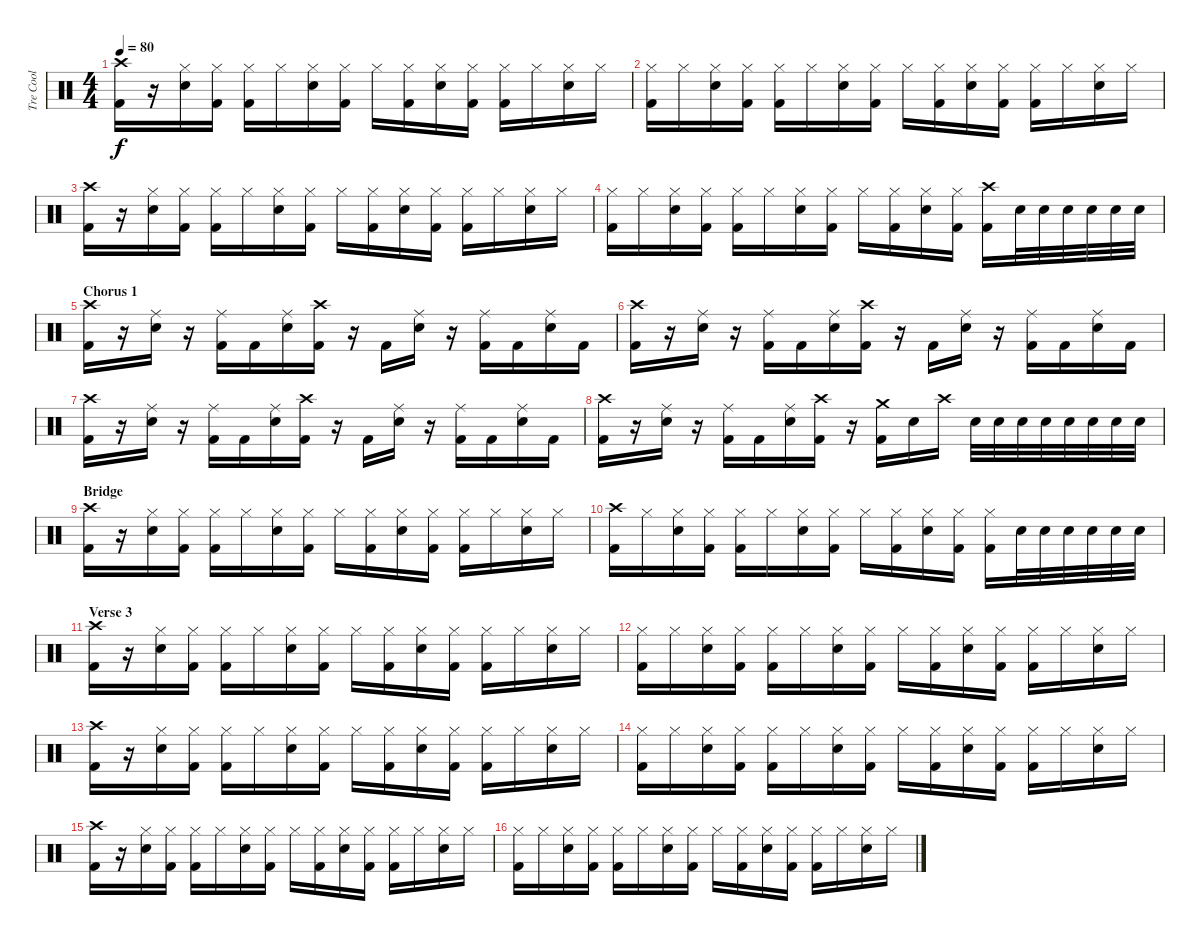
\track ("Tre Cool" "Tre Cool") {instrument percussion}
\staff {score}
\articulation defaults
\ts (4 4)
\tempo 80
\clef neutral
\ks c
("Crash high (hit)" "Kick (hit) 2").16{dy f} r.16 ("Hi-Hat (closed)" "Electric Snare (hit)").16 ("Hi-Hat (closed)" "Kick (hit) 2").16 ("Hi-Hat (closed)" "Kick (hit) 2").16 "Hi-Hat (closed)".16 ("Hi-Hat (closed)" "Electric Snare (hit)").16 ("Hi-Hat (closed)" "Kick (hit) 2").16 "Hi-Hat (closed)".16 ("Hi-Hat (closed)" "Kick (hit) 2").16 ("Hi-Hat (closed)" "Electric Snare (hit)").16 ("Hi-Hat (closed)" "Kick (hit) 2").16 ("Hi-Hat (closed)" "Kick (hit) 2").16 "Hi-Hat (closed)".16 ("Hi-Hat (closed)" "Electric Snare (hit)").16 "Hi-Hat (closed)".16 |
("Hi-Hat (closed)" "Kick (hit) 2").16 "Hi-Hat (closed)".16 ("Hi-Hat (closed)" "Electric Snare (hit)").16 ("Hi-Hat (closed)" "Kick (hit) 2").16 ("Hi-Hat (closed)" "Kick (hit) 2").16 "Hi-Hat (closed)".16 ("Hi-Hat (closed)" "Electric Snare (hit)").16 ("Hi-Hat (closed)" "Kick (hit) 2").16 "Hi-Hat (closed)".16 ("Hi-Hat (closed)" "Kick (hit) 2").16 ("Hi-Hat (closed)" "Electric Snare (hit)").16 ("Hi-Hat (closed)" "Kick (hit) 2").16 ("Hi-Hat (closed)" "Kick (hit) 2").16 "Hi-Hat (closed)".16 ("Hi-Hat (closed)" "Electric Snare (hit)").16 "Hi-Hat (closed)".16 |
("Crash high (hit)" "Kick (hit) 2").16 r.16 ("Hi-Hat (closed)" "Electric Snare (hit)").16 ("Hi-Hat (closed)" "Kick (hit) 2").16 ("Hi-Hat (closed)" "Kick (hit) 2").16 "Hi-Hat (closed)".16 ("Hi-Hat (closed)" "Electric Snare (hit)").16 ("Hi-Hat (closed)" "Kick (hit) 2").16 "Hi-Hat (closed)".16 ("Hi-Hat (closed)" "Kick (hit) 2").16 ("Hi-Hat (closed)" "Electric Snare (hit)").16 ("Hi-Hat (closed)" "Kick (hit) 2").16 ("Hi-Hat (closed)" "Kick (hit) 2").16 "Hi-Hat (closed)".16 ("Hi-Hat (closed)" "Electric Snare (hit)").16 "Hi-Hat (closed)".16 |
("Hi-Hat (closed)" "Kick (hit) 2").16 "Hi-Hat (closed)".16 ("Hi-Hat (closed)" "Electric Snare (hit)").16 ("Hi-Hat (closed)" "Kick (hit) 2").16 ("Hi-Hat (closed)" "Kick (hit) 2").16 "Hi-Hat (closed)".16 ("Hi-Hat (closed)" "Electric Snare (hit)").16 ("Hi-Hat (closed)" "Kick (hit) 2").16 "Hi-Hat (closed)".16 ("Hi-Hat (closed)" "Kick (hit) 2").16 ("Hi-Hat (closed)" "Electric Snare (hit)").16 ("Hi-Hat (closed)" "Kick (hit) 2").16 ("Crash high (hit)" "Kick (hit) 2").16 "Electric Snare (hit)".32 "Electric Snare (hit)".32 "Electric Snare (hit)".32 "Electric Snare (hit)".32 "Electric Snare (hit)".32 "Electric Snare (hit)".32 |
\section ("" "Chorus 1")
("Crash high (hit)" "Kick (hit) 2").16 r.16 ("Ride (middle)" "Electric Snare (hit)").16 r.16 ("Ride (middle)" "Kick (hit) 2").16 "Kick (hit) 2".16 ("Ride (middle)" "Electric Snare (hit)").16 ("Crash high (hit)" "Kick (hit) 2").16 r.16 "Kick (hit) 2".16 ("Ride (middle)" "Electric Snare (hit)").16 r.16 ("Ride (middle)" "Kick (hit) 2").16 "Kick (hit) 2".16 ("Ride (middle)" "Electric Snare (hit)").16 "Kick (hit) 2".16 |
("Crash high (hit)" "Kick (hit) 2").16 r.16 ("Ride (middle)" "Electric Snare (hit)").16 r.16 ("Ride (middle)" "Kick (hit) 2").16 "Kick (hit) 2".16 ("Ride (middle)" "Electric Snare (hit)").16 ("Crash high (hit)" "Kick (hit) 2").16 r.16 "Kick (hit) 2".16 ("Ride (middle)" "Electric Snare (hit)").16 r.16 ("Ride (middle)" "Kick (hit) 2").16 "Kick (hit) 2".16 ("Ride (middle)" "Electric Snare (hit)").16 "Kick (hit) 2".16 |
("Crash high (hit)" "Kick (hit) 2").16 r.16 ("Ride (middle)" "Electric Snare (hit)").16 r.16 ("Ride (middle)" "Kick (hit) 2").16 "Kick (hit) 2".16 ("Ride (middle)" "Electric Snare (hit)").16 ("Crash high (hit)" "Kick (hit) 2").16 r.16 "Kick (hit) 2".16 ("Ride (middle)" "Electric Snare (hit)").16 r.16 ("Ride (middle)" "Kick (hit) 2").16 "Kick (hit) 2".16 ("Ride (middle)" "Electric Snare (hit)").16 "Kick (hit) 2".16 |
("Crash high (hit)" "Kick (hit) 2").16 r.16 ("Ride (middle)" "Electric Snare (hit)").16 r.16 ("Ride (middle)" "Kick (hit) 2").16 "Kick (hit) 2".16 ("Ride (middle)" "Electric Snare (hit)").16 ("Crash high (hit)" "Kick (hit) 2").16 r.16 ("Crash medium (hit)" "Kick (hit) 2").16 "Electric Snare (hit)".16 "Crash high (hit)".16 "Electric Snare (hit)".32 "Electric Snare (hit)".32 "Electric Snare (hit)".32 "Electric Snare (hit)".32 "Electric Snare (hit)".32 "Electric Snare (hit)".32 "Electric Snare (hit)".32 "Electric Snare (hit)".32 |
\section ("" "Bridge")
("Crash high (hit)" "Kick (hit) 2").16 r.16 ("Hi-Hat (closed)" "Electric Snare (hit)").16 ("Hi-Hat (closed)" "Kick (hit) 2").16 ("Hi-Hat (closed)" "Kick (hit) 2").16 "Hi-Hat (closed)".16 ("Hi-Hat (closed)" "Electric Snare (hit)").16 ("Hi-Hat (closed)" "Kick (hit) 2").16 "Hi-Hat (closed)".16 ("Hi-Hat (closed)" "Kick (hit) 2").16 ("Hi-Hat (closed)" "Electric Snare (hit)").16 ("Hi-Hat (closed)" "Kick (hit) 2").16 ("Hi-Hat (closed)" "Kick (hit) 2").16 "Hi-Hat (closed)".16 ("Hi-Hat (closed)" "Electric Snare (hit)").16 "Hi-Hat (closed)".16 |
("Crash high (hit)" "Kick (hit) 2").16 "Hi-Hat (closed)".16 ("Hi-Hat (closed)" "Electric Snare (hit)").16 ("Hi-Hat (closed)" "Kick (hit) 2").16 ("Hi-Hat (closed)" "Kick (hit) 2").16 "Hi-Hat (closed)".16 ("Hi-Hat (closed)" "Electric Snare (hit)").16 ("Hi-Hat (closed)" "Kick (hit) 2").16 "Hi-Hat (closed)".16 ("Hi-Hat (closed)" "Kick (hit) 2").16 ("Hi-Hat (closed)" "Electric Snare (hit)").16 ("Hi-Hat (closed)" "Kick (hit) 2").16 ("Hi-Hat (closed)" "Kick (hit) 2").16 "Electric Snare (hit)".32 "Electric Snare (hit)".32 "Electric Snare (hit)".32 "Electric Snare (hit)".32 "Electric Snare (hit)".32 "Electric Snare (hit)".32 |
\section ("" "Verse 3")
("Crash high (hit)" "Kick (hit) 2").16 r.16 ("Hi-Hat (closed)" "Electric Snare (hit)").16 ("Hi-Hat (closed)" "Kick (hit) 2").16 ("Hi-Hat (closed)" "Kick (hit) 2").16 "Hi-Hat (closed)".16 ("Hi-Hat (closed)" "Electric Snare (hit)").16 ("Hi-Hat (closed)" "Kick (hit) 2").16 "Hi-Hat (closed)".16 ("Hi-Hat (closed)" "Kick (hit) 2").16 ("Hi-Hat (closed)" "Electric Snare (hit)").16 ("Hi-Hat (closed)" "Kick (hit) 2").16 ("Hi-Hat (closed)" "Kick (hit) 2").16 "Hi-Hat (closed)".16 ("Hi-Hat (closed)" "Electric Snare (hit)").16 "Hi-Hat (closed)".16 |
("Hi-Hat (closed)" "Kick (hit) 2").16 "Hi-Hat (closed)".16 ("Hi-Hat (closed)" "Electric Snare (hit)").16 ("Hi-Hat (closed)" "Kick (hit) 2").16 ("Hi-Hat (closed)" "Kick (hit) 2").16 "Hi-Hat (closed)".16 ("Hi-Hat (closed)" "Electric Snare (hit)").16 ("Hi-Hat (closed)" "Kick (hit) 2").16 "Hi-Hat (closed)".16 ("Hi-Hat (closed)" "Kick (hit) 2").16 ("Hi-Hat (closed)" "Electric Snare (hit)").16 ("Hi-Hat (closed)" "Kick (hit) 2").16 ("Hi-Hat (closed)" "Kick (hit) 2").16 "Hi-Hat (closed)".16 ("Hi-Hat (closed)" "Electric Snare (hit)").16 "Hi-Hat (closed)".16 |
("Crash high (hit)" "Kick (hit) 2").16 r.16 ("Hi-Hat (closed)" "Electric Snare (hit)").16 ("Hi-Hat (closed)" "Kick (hit) 2").16 ("Hi-Hat (closed)" "Kick (hit) 2").16 "Hi-Hat (closed)".16 ("Hi-Hat (closed)" "Electric Snare (hit)").16 ("Hi-Hat (closed)" "Kick (hit) 2").16 "Hi-Hat (closed)".16 ("Hi-Hat (closed)" "Kick (hit) 2").16 ("Hi-Hat (closed)" "Electric Snare (hit)").16 ("Hi-Hat (closed)" "Kick (hit) 2").16 ("Hi-Hat (closed)" "Kick (hit) 2").16 "Hi-Hat (closed)".16 ("Hi-Hat (closed)" "Electric Snare (hit)").16 "Hi-Hat (closed)".16 |
("Hi-Hat (closed)" "Kick (hit) 2").16 "Hi-Hat (closed)".16 ("Hi-Hat (closed)" "Electric Snare (hit)").16 ("Hi-Hat (closed)" "Kick (hit) 2").16 ("Hi-Hat (closed)" "Kick (hit) 2").16 "Hi-Hat (closed)".16 ("Hi-Hat (closed)" "Electric Snare (hit)").16 ("Hi-Hat (closed)" "Kick (hit) 2").16 "Hi-Hat (closed)".16 ("Hi-Hat (closed)" "Kick (hit) 2").16 ("Hi-Hat (closed)" "Electric Snare (hit)").16 ("Hi-Hat (closed)" "Kick (hit) 2").16 ("Hi-Hat (closed)" "Kick (hit) 2").16 "Hi-Hat (closed)".16 ("Hi-Hat (closed)" "Electric Snare (hit)").16 "Hi-Hat (closed)".16 |
("Crash high (hit)" "Kick (hit) 2").16 r.16 ("Hi-Hat (closed)" "Electric Snare (hit)").16 ("Hi-Hat (closed)" "Kick (hit) 2").16 ("Hi-Hat (closed)" "Kick (hit) 2").16 "Hi-Hat (closed)".16 ("Hi-Hat (closed)" "Electric Snare (hit)").16 ("Hi-Hat (closed)" "Kick (hit) 2").16 "Hi-Hat (closed)".16 ("Hi-Hat (closed)" "Kick (hit) 2").16 ("Hi-Hat (closed)" "Electric Snare (hit)").16 ("Hi-Hat (closed)" "Kick (hit) 2").16 ("Hi-Hat (closed)" "Kick (hit) 2").16 "Hi-Hat (closed)".16 ("Hi-Hat (closed)" "Electric Snare (hit)").16 "Hi-Hat (closed)".16 |
("Hi-Hat (closed)" "Kick (hit) 2").16 "Hi-Hat (closed)".16 ("Hi-Hat (closed)" "Electric Snare (hit)").16 ("Hi-Hat (closed)" "Kick (hit) 2").16 ("Hi-Hat (closed)" "Kick (hit) 2").16 "Hi-Hat (closed)".16 ("Hi-Hat (closed)" "Electric Snare (hit)").16 ("Hi-Hat (closed)" "Kick (hit) 2").16 "Hi-Hat (closed)".16 ("Hi-Hat (closed)" "Kick (hit) 2").16 ("Hi-Hat (closed)" "Electric Snare (hit)").16 ("Hi-Hat (closed)" "Kick (hit) 2").16 ("Hi-Hat (closed)" "Kick (hit) 2").16 "Hi-Hat (closed)".16 ("Hi-Hat (closed)" "Electric Snare (hit)").16 "Hi-Hat (closed)".16
